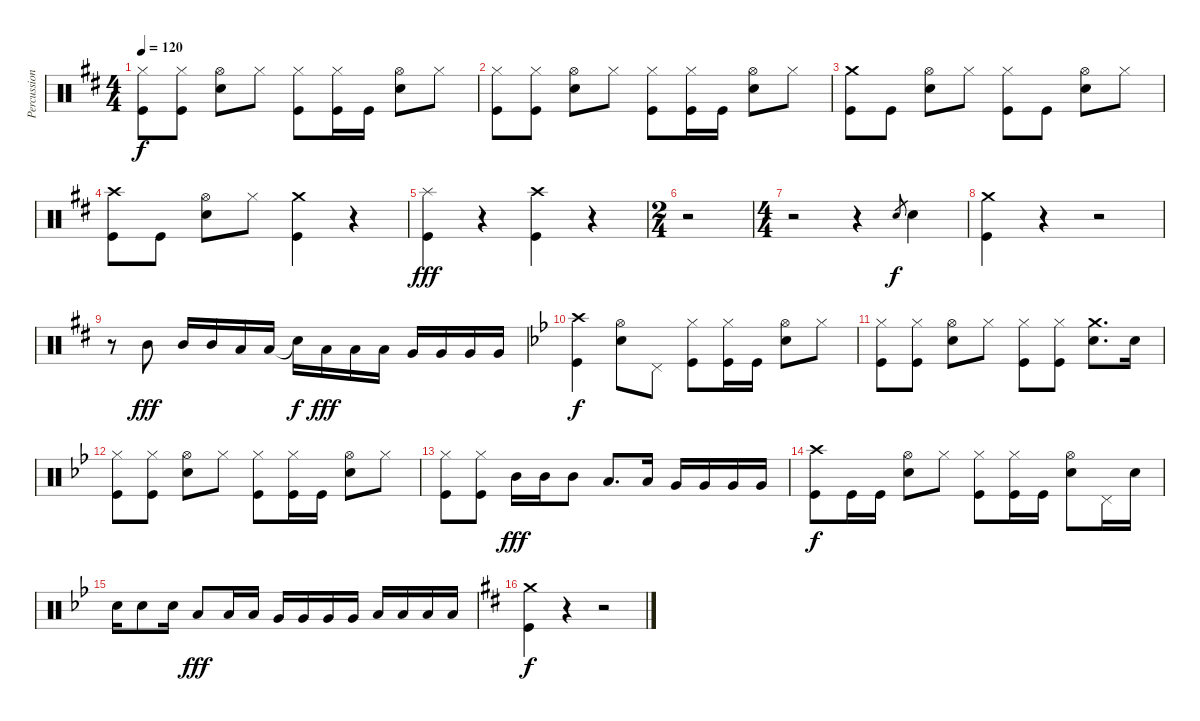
\track ("Percussion" "Percussion") {instrument percussion}
\staff {score}
\articulation defaults
\ts (4 4)
\tempo 120
\clef neutral
\ks d
("Hi-Hat (closed)" "Kick (hit)").8{dy f} ("Hi-Hat (closed)" "Kick (hit)").8 ("Hi-Hat (open)" "Snare (hit) 2").8 "Hi-Hat (closed)".8 ("Hi-Hat (closed)" "Kick (hit)").8 ("Hi-Hat (closed)" "Kick (hit)").16 "Kick (hit)".16 ("Hi-Hat (open)" "Snare (hit) 2").8 "Hi-Hat (closed)".8 |
("Hi-Hat (closed)" "Kick (hit)").8 ("Hi-Hat (closed)" "Kick (hit)").8 ("Hi-Hat (open)" "Snare (hit) 2").8 "Hi-Hat (closed)".8 ("Hi-Hat (closed)" "Kick (hit)").8 ("Hi-Hat (closed)" "Kick (hit)").16 "Kick (hit)".16 ("Hi-Hat (open)" "Snare (hit) 2").8 "Hi-Hat (closed)".8 |
("Crash medium (hit)" "Kick (hit)").8 "Kick (hit)".8 ("Hi-Hat (open)" "Snare (hit) 2").8 "Hi-Hat (closed)".8 ("Hi-Hat (closed)" "Kick (hit)").8 "Kick (hit)".8 ("Hi-Hat (open)" "Snare (hit) 2").8 "Hi-Hat (closed)".8 |
("Crash high (hit)" "Kick (hit)").8 "Kick (hit)".8 ("Hi-Hat (open)" "Snare (hit) 2").8 "Hi-Hat (closed)".8 ("Crash medium (hit)" "Kick (hit)").4 r.4 |
("Splash (hit)" "Kick (hit)").4{dy fff} r.4 ("Crash high (hit)" "Kick (hit)").4 r.4 |
\ts (2 4)
r.2 |
\ts (4 4)
r.2 r.4 "Snare (hit) 2".8{gr dy f} "Snare (hit) 2".4 |
("Crash medium (hit)" "Kick (hit)").4 r.4 r.2 |
r.8 "Mid Tom (hit)".8{dy fff} "Mid Tom (hit)".16 "Mid Tom (hit)".16 "Low Tom (hit)".16 "Low Tom (hit)".16 "Snare (hit)"{t}.16{dy f} "Low Tom (hit)".16{dy fff} "Low Tom (hit)".16 "Low Tom (hit)".16 "Very Low Tom (hit)".16 "Very Low Tom (hit)".16 "Very Low Tom (hit)".16 "Very Low Tom (hit)".16 |
\ks bb
("Crash high (hit)" "Kick (hit)").4{dy f} ("Hi-Hat (open)" "Snare (hit) 2").8 "Pedal Hi-Hat (hit)".8 ("Hi-Hat (closed)" "Kick (hit)").8 ("Hi-Hat (closed)" "Kick (hit)").16 "Kick (hit)".16 ("Hi-Hat (open)" "Snare (hit) 2").8 "Hi-Hat (closed)".8 |
("Hi-Hat (closed)" "Kick (hit)").8 ("Hi-Hat (closed)" "Kick (hit)").8 ("Hi-Hat (open)" "Snare (hit) 2").8 "Hi-Hat (closed)".8 ("Hi-Hat (closed)" "Kick (hit)").8 ("Hi-Hat (closed)" "Kick (hit)").8 ("Crash medium (hit)" "Snare (hit) 2").8{d} "Snare (hit) 2".16 |
("Hi-Hat (closed)" "Kick (hit)").8 ("Hi-Hat (closed)" "Kick (hit)").8 ("Hi-Hat (open)" "Snare (hit) 2").8 "Hi-Hat (closed)".8 ("Hi-Hat (closed)" "Kick (hit)").8 ("Hi-Hat (closed)" "Kick (hit)").16 "Kick (hit)".16 ("Hi-Hat (open)" "Snare (hit) 2").8 "Hi-Hat (closed)".8 |
("Hi-Hat (closed)" "Kick (hit)").8 ("Hi-Hat (closed)" "Kick (hit)").8 "Mid Tom (hit)".16{dy fff} "Mid Tom (hit)".16 "Mid Tom (hit)".8 "Low Tom (hit)".8{d} "Low Tom (hit)".16 "Very Low Tom (hit)".16 "Very Low Tom (hit)".16 "Very Low Tom (hit)".16 "Very Low Tom (hit)".16 |
("Crash high (hit)" "Kick (hit)").8{dy f} "Kick (hit)".16 "Kick (hit)".16 ("Hi-Hat (open)" "Snare (hit) 2").8 "Hi-Hat (closed)".8 ("Hi-Hat (closed)" "Kick (hit)").8 ("Hi-Hat (closed)" "Kick (hit)").16 "Kick (hit)".16 ("Hi-Hat (open)" "Snare (hit) 2").8 "Pedal Hi-Hat (hit)".16 "Snare (hit) 2".16 |
"Snare (hit) 2".16 "Snare (hit) 2".8 "Snare (hit) 2".16 "Low Tom (hit)".8{dy fff} "Low Tom (hit)".16 "Low Tom (hit)".16 "Very Low Tom (hit)".16 "Very Low Tom (hit)".16 "Very Low Tom (hit)".16 "Very Low Tom (hit)".16 "Low Floor Tom (hit)".16 "Low Floor Tom (hit)".16 "Low Floor Tom (hit)".16 "Low Floor Tom (hit)".16 |
\ks d
("Crash medium (hit)" "Kick (hit)").4{dy f} r.4 r.2
